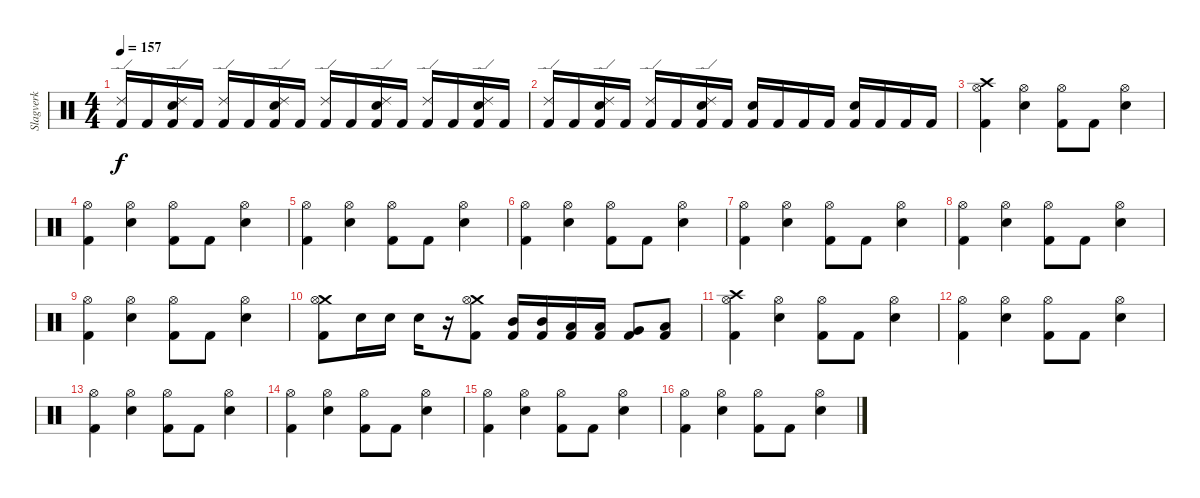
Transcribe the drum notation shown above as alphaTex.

\track ("Slagverk" "Slagverk") {instrument percussion}
\staff {score}
\articulation defaults
\ts (4 4)
\tempo 157
\clef neutral
\ks c
("Ride (edge) 2" "Kick (hit) 2").16{dy f} "Kick (hit) 2".16 ("Snare (hit) 2" "Ride (edge) 2" "Kick (hit) 2").16 "Kick (hit) 2".16 ("Ride (edge) 2" "Kick (hit) 2").16 "Kick (hit) 2".16 ("Snare (hit) 2" "Ride (edge) 2" "Kick (hit) 2").16 "Kick (hit) 2".16 ("Ride (edge) 2" "Kick (hit) 2").16 "Kick (hit) 2".16 ("Snare (hit) 2" "Ride (edge) 2" "Kick (hit) 2").16 "Kick (hit) 2".16 ("Ride (edge) 2" "Kick (hit) 2").16 "Kick (hit) 2".16 ("Snare (hit) 2" "Ride (edge) 2" "Kick (hit) 2").16 "Kick (hit) 2".16 |
("Ride (edge) 2" "Kick (hit) 2").16 "Kick (hit) 2".16 ("Snare (hit) 2" "Ride (edge) 2" "Kick (hit) 2").16 "Kick (hit) 2".16 ("Ride (edge) 2" "Kick (hit) 2").16 "Kick (hit) 2".16 ("Snare (hit) 2" "Ride (edge) 2" "Kick (hit) 2").16 "Kick (hit) 2".16 ("Snare (hit) 2" "Kick (hit) 2").16 "Kick (hit) 2".16 "Kick (hit) 2".16 "Kick (hit) 2".16 ("Snare (hit) 2" "Kick (hit) 2").16 "Kick (hit) 2".16 "Kick (hit) 2".16 "Kick (hit) 2".16 |
("Crash high (hit)" "Hi-Hat (open)" "Kick (hit) 2").4 ("Hi-Hat (open)" "Snare (hit) 2").4 ("Hi-Hat (open)" "Kick (hit) 2").8 "Kick (hit) 2".8 ("Hi-Hat (open)" "Snare (hit) 2").4 |
("Hi-Hat (open)" "Kick (hit) 2").4 ("Hi-Hat (open)" "Snare (hit) 2").4 ("Hi-Hat (open)" "Kick (hit) 2").8 "Kick (hit) 2".8 ("Hi-Hat (open)" "Snare (hit) 2").4 |
("Hi-Hat (open)" "Kick (hit) 2").4 ("Hi-Hat (open)" "Snare (hit) 2").4 ("Hi-Hat (open)" "Kick (hit) 2").8 "Kick (hit) 2".8 ("Hi-Hat (open)" "Snare (hit) 2").4 |
("Hi-Hat (open)" "Kick (hit) 2").4 ("Hi-Hat (open)" "Snare (hit) 2").4 ("Hi-Hat (open)" "Kick (hit) 2").8 "Kick (hit) 2".8 ("Hi-Hat (open)" "Snare (hit) 2").4 |
("Hi-Hat (open)" "Kick (hit) 2").4 ("Hi-Hat (open)" "Snare (hit) 2").4 ("Hi-Hat (open)" "Kick (hit) 2").8 "Kick (hit) 2".8 ("Hi-Hat (open)" "Snare (hit) 2").4 |
("Hi-Hat (open)" "Kick (hit) 2").4 ("Hi-Hat (open)" "Snare (hit) 2").4 ("Hi-Hat (open)" "Kick (hit) 2").8 "Kick (hit) 2".8 ("Hi-Hat (open)" "Snare (hit) 2").4 |
("Hi-Hat (open)" "Kick (hit) 2").4 ("Hi-Hat (open)" "Snare (hit) 2").4 ("Hi-Hat (open)" "Kick (hit) 2").8 "Kick (hit) 2".8 ("Hi-Hat (open)" "Snare (hit) 2").4 |
("Crash medium (hit)" "Hi-Hat (open)" "Kick (hit) 2").8 "Snare (hit) 2".16 "Snare (hit) 2".16 "Snare (hit) 2".16 r.16 ("Crash medium (hit)" "Hi-Hat (open)" "Kick (hit) 2").8 ("Mid Tom (hit)" "Kick (hit) 2").16 ("Mid Tom (hit)" "Kick (hit) 2").16 ("Low Tom (hit)" "Kick (hit) 2").16 ("Low Tom (hit)" "Kick (hit) 2").16 ("Very Low Tom (hit)" "Kick (hit) 2").8 ("Low Floor Tom (hit)" "Kick (hit) 2").8 |
("Crash high (hit)" "Hi-Hat (open)" "Kick (hit) 2").4 ("Hi-Hat (open)" "Snare (hit) 2").4 ("Hi-Hat (open)" "Kick (hit) 2").8 "Kick (hit) 2".8 ("Hi-Hat (open)" "Snare (hit) 2").4 |
("Hi-Hat (open)" "Kick (hit) 2").4 ("Hi-Hat (open)" "Snare (hit) 2").4 ("Hi-Hat (open)" "Kick (hit) 2").8 "Kick (hit) 2".8 ("Hi-Hat (open)" "Snare (hit) 2").4 |
("Hi-Hat (open)" "Kick (hit) 2").4 ("Hi-Hat (open)" "Snare (hit) 2").4 ("Hi-Hat (open)" "Kick (hit) 2").8 "Kick (hit) 2".8 ("Hi-Hat (open)" "Snare (hit) 2").4 |
("Hi-Hat (open)" "Kick (hit) 2").4 ("Hi-Hat (open)" "Snare (hit) 2").4 ("Hi-Hat (open)" "Kick (hit) 2").8 "Kick (hit) 2".8 ("Hi-Hat (open)" "Snare (hit) 2").4 |
("Hi-Hat (open)" "Kick (hit) 2").4 ("Hi-Hat (open)" "Snare (hit) 2").4 ("Hi-Hat (open)" "Kick (hit) 2").8 "Kick (hit) 2".8 ("Hi-Hat (open)" "Snare (hit) 2").4 |
("Hi-Hat (open)" "Kick (hit) 2").4 ("Hi-Hat (open)" "Snare (hit) 2").4 ("Hi-Hat (open)" "Kick (hit) 2").8 "Kick (hit) 2".8 ("Hi-Hat (open)" "Snare (hit) 2").4
